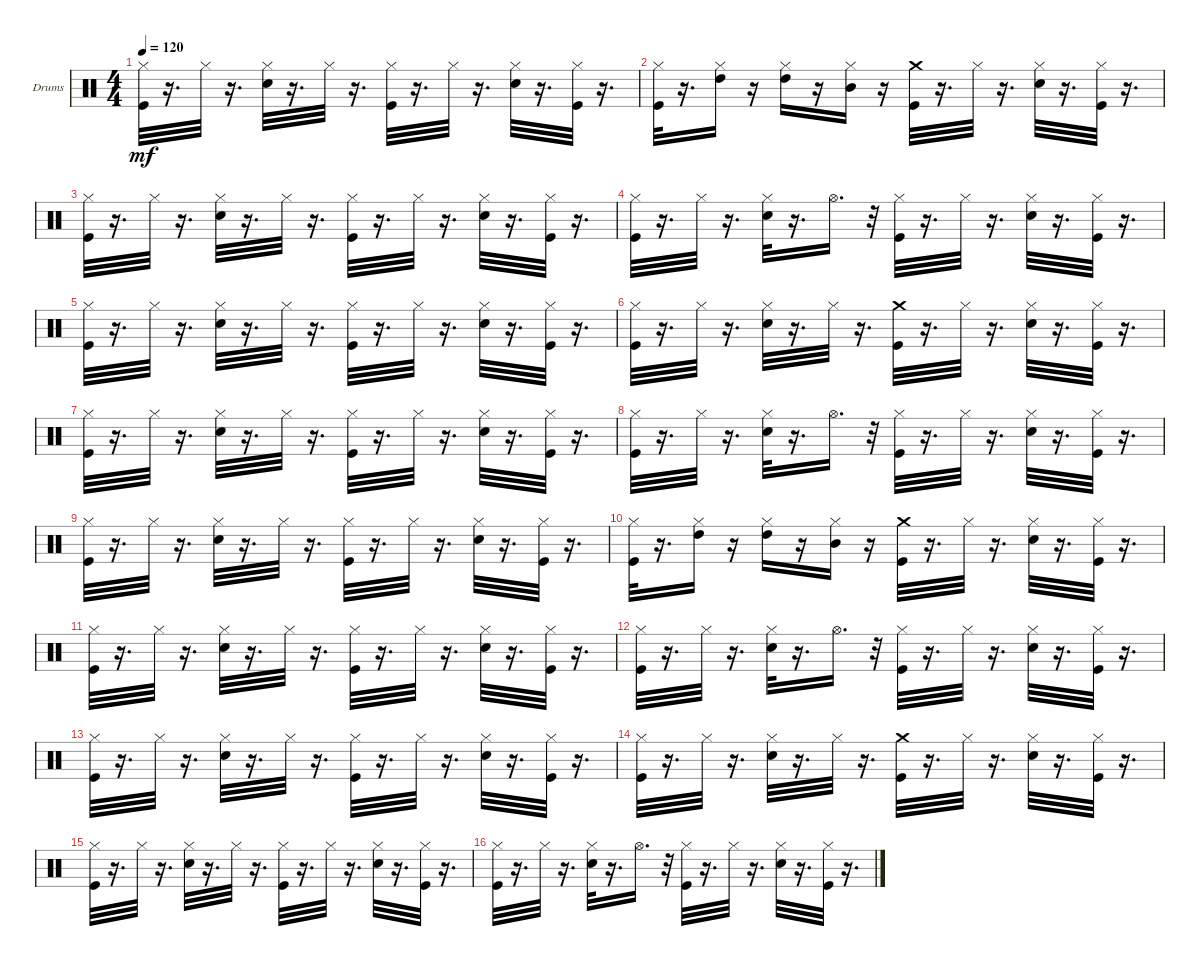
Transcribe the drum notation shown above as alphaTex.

\bracketExtendMode groupsimilarinstruments
\firstSystemTrackNameOrientation horizontal
\otherSystemsTrackNameOrientation horizontal
\track ("Ударные" "Drums") {instrument percussion}
\staff {score}
\articulation defaults
\ts (4 4)
\tempo 120
\clef neutral
\ks c
("Hi-Hat (closed)" "Kick (hit)").32{dy mf} r.16{d} "Hi-Hat (closed)".32 r.16{d} ("Hi-Hat (closed)" "Snare (hit) 2").32 r.16{d} "Hi-Hat (closed)".32 r.16{d} ("Hi-Hat (closed)" "Kick (hit)").32 r.16{d} "Hi-Hat (closed)".32 r.16{d} ("Hi-Hat (closed)" "Snare (hit) 2").32 r.16{d} ("Hi-Hat (closed)" "Kick (hit)").32 r.16{d} |
("Hi-Hat (closed)" "Kick (hit)").32 r.16{d} ("Hi-Hat (closed)" "High Tom (hit)").16 r.16 ("Hi-Hat (closed)" "High Tom (hit)").16 r.16 ("Hi-Hat (closed)" "Mid Tom (hit)").16 r.16 ("Crash medium (hit)" "Kick (hit)").32 r.16{d} "Hi-Hat (closed)".32 r.16{d} ("Hi-Hat (closed)" "Snare (hit) 2").32 r.16{d} ("Hi-Hat (closed)" "Kick (hit)").32 r.16{d} |
("Hi-Hat (closed)" "Kick (hit)").32 r.16{d} "Hi-Hat (closed)".32 r.16{d} ("Hi-Hat (closed)" "Snare (hit) 2").32 r.16{d} "Hi-Hat (closed)".32 r.16{d} ("Hi-Hat (closed)" "Kick (hit)").32 r.16{d} "Hi-Hat (closed)".32 r.16{d} ("Hi-Hat (closed)" "Snare (hit) 2").32 r.16{d} ("Hi-Hat (closed)" "Kick (hit)").32 r.16{d} |
("Hi-Hat (closed)" "Kick (hit)").32 r.16{d} "Hi-Hat (closed)".32 r.16{d} ("Hi-Hat (closed)" "Snare (hit) 2").32 r.16{d} "Hi-Hat (open)".16{d} r.32 ("Hi-Hat (closed)" "Kick (hit)").32 r.16{d} "Hi-Hat (closed)".32 r.16{d} ("Hi-Hat (closed)" "Snare (hit) 2").32 r.16{d} ("Hi-Hat (closed)" "Kick (hit)").32 r.16{d} |
("Hi-Hat (closed)" "Kick (hit)").32 r.16{d} "Hi-Hat (closed)".32 r.16{d} ("Hi-Hat (closed)" "Snare (hit) 2").32 r.16{d} "Hi-Hat (closed)".32 r.16{d} ("Hi-Hat (closed)" "Kick (hit)").32 r.16{d} "Hi-Hat (closed)".32 r.16{d} ("Hi-Hat (closed)" "Snare (hit) 2").32 r.16{d} ("Hi-Hat (closed)" "Kick (hit)").32 r.16{d} |
("Hi-Hat (closed)" "Kick (hit)").32 r.16{d} "Hi-Hat (closed)".32 r.16{d} ("Hi-Hat (closed)" "Snare (hit) 2").32 r.16{d} "Hi-Hat (closed)".32 r.16{d} ("Crash medium (hit)" "Kick (hit)").32 r.16{d} "Hi-Hat (closed)".32 r.16{d} ("Hi-Hat (closed)" "Snare (hit) 2").32 r.16{d} ("Hi-Hat (closed)" "Kick (hit)").32 r.16{d} |
("Hi-Hat (closed)" "Kick (hit)").32 r.16{d} "Hi-Hat (closed)".32 r.16{d} ("Hi-Hat (closed)" "Snare (hit) 2").32 r.16{d} "Hi-Hat (closed)".32 r.16{d} ("Hi-Hat (closed)" "Kick (hit)").32 r.16{d} "Hi-Hat (closed)".32 r.16{d} ("Hi-Hat (closed)" "Snare (hit) 2").32 r.16{d} ("Hi-Hat (closed)" "Kick (hit)").32 r.16{d} |
("Hi-Hat (closed)" "Kick (hit)").32 r.16{d} "Hi-Hat (closed)".32 r.16{d} ("Hi-Hat (closed)" "Snare (hit) 2").32 r.16{d} "Hi-Hat (open)".16{d} r.32 ("Hi-Hat (closed)" "Kick (hit)").32 r.16{d} "Hi-Hat (closed)".32 r.16{d} ("Hi-Hat (closed)" "Snare (hit) 2").32 r.16{d} ("Hi-Hat (closed)" "Kick (hit)").32 r.16{d} |
("Hi-Hat (closed)" "Kick (hit)").32 r.16{d} "Hi-Hat (closed)".32 r.16{d} ("Hi-Hat (closed)" "Snare (hit) 2").32 r.16{d} "Hi-Hat (closed)".32 r.16{d} ("Hi-Hat (closed)" "Kick (hit)").32 r.16{d} "Hi-Hat (closed)".32 r.16{d} ("Hi-Hat (closed)" "Snare (hit) 2").32 r.16{d} ("Hi-Hat (closed)" "Kick (hit)").32 r.16{d} |
("Hi-Hat (closed)" "Kick (hit)").32 r.16{d} ("Hi-Hat (closed)" "High Tom (hit)").16 r.16 ("Hi-Hat (closed)" "High Tom (hit)").16 r.16 ("Hi-Hat (closed)" "Mid Tom (hit)").16 r.16 ("Crash medium (hit)" "Kick (hit)").32 r.16{d} "Hi-Hat (closed)".32 r.16{d} ("Hi-Hat (closed)" "Snare (hit) 2").32 r.16{d} ("Hi-Hat (closed)" "Kick (hit)").32 r.16{d} |
("Hi-Hat (closed)" "Kick (hit)").32 r.16{d} "Hi-Hat (closed)".32 r.16{d} ("Hi-Hat (closed)" "Snare (hit) 2").32 r.16{d} "Hi-Hat (closed)".32 r.16{d} ("Hi-Hat (closed)" "Kick (hit)").32 r.16{d} "Hi-Hat (closed)".32 r.16{d} ("Hi-Hat (closed)" "Snare (hit) 2").32 r.16{d} ("Hi-Hat (closed)" "Kick (hit)").32 r.16{d} |
("Hi-Hat (closed)" "Kick (hit)").32 r.16{d} "Hi-Hat (closed)".32 r.16{d} ("Hi-Hat (closed)" "Snare (hit) 2").32 r.16{d} "Hi-Hat (open)".16{d} r.32 ("Hi-Hat (closed)" "Kick (hit)").32 r.16{d} "Hi-Hat (closed)".32 r.16{d} ("Hi-Hat (closed)" "Snare (hit) 2").32 r.16{d} ("Hi-Hat (closed)" "Kick (hit)").32 r.16{d} |
("Hi-Hat (closed)" "Kick (hit)").32 r.16{d} "Hi-Hat (closed)".32 r.16{d} ("Hi-Hat (closed)" "Snare (hit) 2").32 r.16{d} "Hi-Hat (closed)".32 r.16{d} ("Hi-Hat (closed)" "Kick (hit)").32 r.16{d} "Hi-Hat (closed)".32 r.16{d} ("Hi-Hat (closed)" "Snare (hit) 2").32 r.16{d} ("Hi-Hat (closed)" "Kick (hit)").32 r.16{d} |
("Hi-Hat (closed)" "Kick (hit)").32 r.16{d} "Hi-Hat (closed)".32 r.16{d} ("Hi-Hat (closed)" "Snare (hit) 2").32 r.16{d} "Hi-Hat (closed)".32 r.16{d} ("Crash medium (hit)" "Kick (hit)").32 r.16{d} "Hi-Hat (closed)".32 r.16{d} ("Hi-Hat (closed)" "Snare (hit) 2").32 r.16{d} ("Hi-Hat (closed)" "Kick (hit)").32 r.16{d} |
("Hi-Hat (closed)" "Kick (hit)").32 r.16{d} "Hi-Hat (closed)".32 r.16{d} ("Hi-Hat (closed)" "Snare (hit) 2").32 r.16{d} "Hi-Hat (closed)".32 r.16{d} ("Hi-Hat (closed)" "Kick (hit)").32 r.16{d} "Hi-Hat (closed)".32 r.16{d} ("Hi-Hat (closed)" "Snare (hit) 2").32 r.16{d} ("Hi-Hat (closed)" "Kick (hit)").32 r.16{d} |
("Hi-Hat (closed)" "Kick (hit)").32 r.16{d} "Hi-Hat (closed)".32 r.16{d} ("Hi-Hat (closed)" "Snare (hit) 2").32 r.16{d} "Hi-Hat (open)".16{d} r.32 ("Hi-Hat (closed)" "Kick (hit)").32 r.16{d} "Hi-Hat (closed)".32 r.16{d} ("Hi-Hat (closed)" "Snare (hit) 2").32 r.16{d} ("Hi-Hat (closed)" "Kick (hit)").32 r.16{d}
